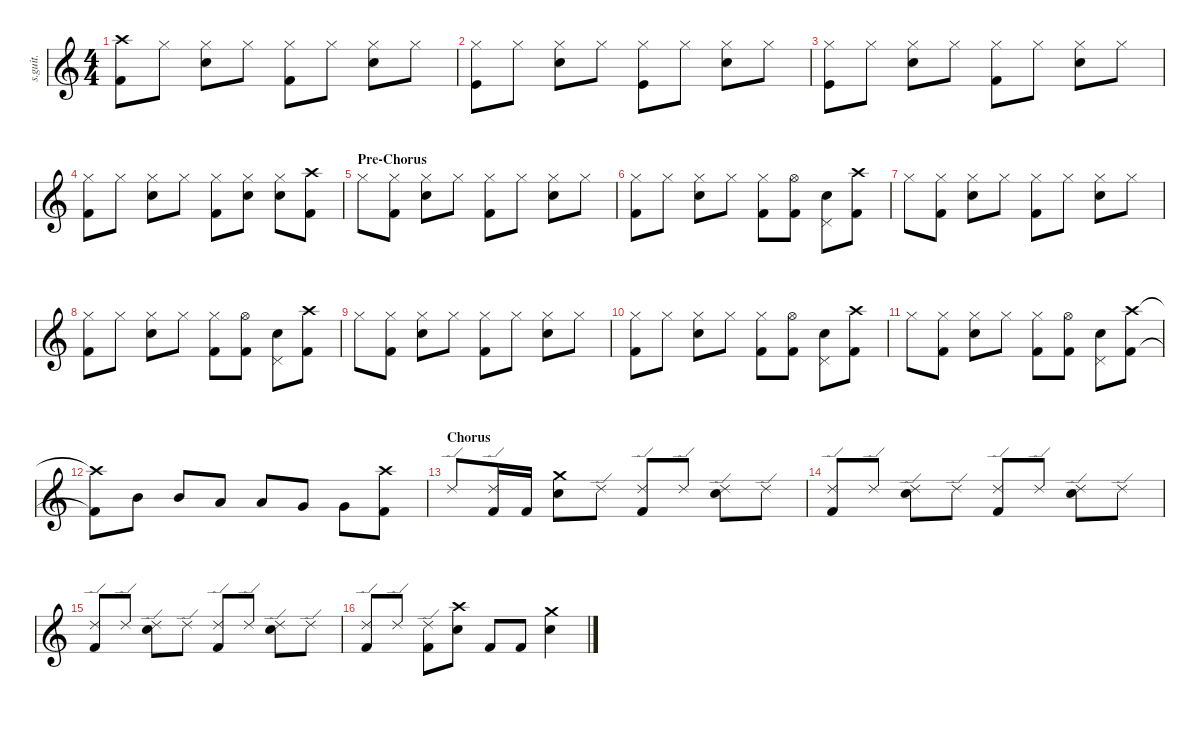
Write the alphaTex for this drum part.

\defaultSystemsLayout 4
\hideDynamics
\bracketExtendMode nobrackets
\track ("Nick Menza" "s.guit.") {instrument percussion}
\staff {score}
\articulation defaults
\ts (4 4)
\tempo (140 hide)
\clef g2
\ks c
("Crash high (hit)" "Kick (hit) 2").8{lyrics (0 "") lyrics (1 "") lyrics (2 "") lyrics (3 "") lyrics (4 "") dy f} "Hi-Hat (closed)".8{lyrics (0 "") lyrics (1 "") lyrics (2 "") lyrics (3 "") lyrics (4 "")} ("Hi-Hat (closed)" "Snare (hit) 2").8{lyrics (0 "") lyrics (1 "") lyrics (2 "") lyrics (3 "") lyrics (4 "")} "Hi-Hat (closed)".8{lyrics (0 "") lyrics (1 "") lyrics (2 "") lyrics (3 "") lyrics (4 "")} ("Hi-Hat (closed)" "Kick (hit) 2").8{lyrics (0 "") lyrics (1 "") lyrics (2 "") lyrics (3 "") lyrics (4 "")} "Hi-Hat (closed)".8{lyrics (0 "") lyrics (1 "") lyrics (2 "") lyrics (3 "") lyrics (4 "")} ("Hi-Hat (closed)" "Snare (hit) 2").8{lyrics (0 "") lyrics (1 "") lyrics (2 "") lyrics (3 "") lyrics (4 "")} "Hi-Hat (closed)".8{lyrics (0 "") lyrics (1 "") lyrics (2 "") lyrics (3 "") lyrics (4 "")} |
("Hi-Hat (closed)" "Kick (hit)").8{lyrics (0 "") lyrics (1 "") lyrics (2 "") lyrics (3 "") lyrics (4 "")} "Hi-Hat (closed)".8{lyrics (0 "") lyrics (1 "") lyrics (2 "") lyrics (3 "") lyrics (4 "")} ("Hi-Hat (closed)" "Snare (hit) 2").8{lyrics (0 "") lyrics (1 "") lyrics (2 "") lyrics (3 "") lyrics (4 "")} "Hi-Hat (closed)".8{lyrics (0 "") lyrics (1 "") lyrics (2 "") lyrics (3 "") lyrics (4 "")} ("Hi-Hat (closed)" "Kick (hit)").8{lyrics (0 "") lyrics (1 "") lyrics (2 "") lyrics (3 "") lyrics (4 "")} "Hi-Hat (closed)".8{lyrics (0 "") lyrics (1 "") lyrics (2 "") lyrics (3 "") lyrics (4 "")} ("Hi-Hat (closed)" "Snare (hit) 2").8{lyrics (0 "") lyrics (1 "") lyrics (2 "") lyrics (3 "") lyrics (4 "")} "Hi-Hat (closed)".8{lyrics (0 "") lyrics (1 "") lyrics (2 "") lyrics (3 "") lyrics (4 "")} |
("Hi-Hat (closed)" "Kick (hit)").8{lyrics (0 "") lyrics (1 "") lyrics (2 "") lyrics (3 "") lyrics (4 "")} "Hi-Hat (closed)".8{lyrics (0 "") lyrics (1 "") lyrics (2 "") lyrics (3 "") lyrics (4 "")} ("Hi-Hat (closed)" "Snare (hit) 2").8{lyrics (0 "") lyrics (1 "") lyrics (2 "") lyrics (3 "") lyrics (4 "")} "Hi-Hat (closed)".8{lyrics (0 "") lyrics (1 "") lyrics (2 "") lyrics (3 "") lyrics (4 "")} ("Hi-Hat (closed)" "Kick (hit) 2").8{lyrics (0 "") lyrics (1 "") lyrics (2 "") lyrics (3 "") lyrics (4 "")} "Hi-Hat (closed)".8{lyrics (0 "") lyrics (1 "") lyrics (2 "") lyrics (3 "") lyrics (4 "")} ("Hi-Hat (closed)" "Snare (hit) 2").8{lyrics (0 "") lyrics (1 "") lyrics (2 "") lyrics (3 "") lyrics (4 "")} "Hi-Hat (closed)".8{lyrics (0 "") lyrics (1 "") lyrics (2 "") lyrics (3 "") lyrics (4 "")} |
("Hi-Hat (closed)" "Kick (hit) 2").8{lyrics (0 "") lyrics (1 "") lyrics (2 "") lyrics (3 "") lyrics (4 "")} "Hi-Hat (closed)".8{lyrics (0 "") lyrics (1 "") lyrics (2 "") lyrics (3 "") lyrics (4 "")} ("Hi-Hat (closed)" "Snare (hit) 2").8{lyrics (0 "") lyrics (1 "") lyrics (2 "") lyrics (3 "") lyrics (4 "")} "Hi-Hat (closed)".8{lyrics (0 "") lyrics (1 "") lyrics (2 "") lyrics (3 "") lyrics (4 "")} ("Hi-Hat (closed)" "Kick (hit) 2").8{lyrics (0 "") lyrics (1 "") lyrics (2 "") lyrics (3 "") lyrics (4 "")} ("Hi-Hat (closed)" "Snare (hit) 2").8{lyrics (0 "") lyrics (1 "") lyrics (2 "") lyrics (3 "") lyrics (4 "")} ("Hi-Hat (closed)" "Snare (hit) 2").8{lyrics (0 "") lyrics (1 "") lyrics (2 "") lyrics (3 "") lyrics (4 "")} ("Crash high (hit)" "Kick (hit) 2").8{lyrics (0 "") lyrics (1 "") lyrics (2 "") lyrics (3 "") lyrics (4 "")} |
\section ("" "Pre-Chorus")
"Hi-Hat (closed)".8{lyrics (0 "") lyrics (1 "") lyrics (2 "") lyrics (3 "") lyrics (4 "")} ("Hi-Hat (closed)" "Kick (hit) 2").8{lyrics (0 "") lyrics (1 "") lyrics (2 "") lyrics (3 "") lyrics (4 "")} ("Hi-Hat (closed)" "Snare (hit) 2").8{lyrics (0 "") lyrics (1 "") lyrics (2 "") lyrics (3 "") lyrics (4 "")} "Hi-Hat (closed)".8{lyrics (0 "") lyrics (1 "") lyrics (2 "") lyrics (3 "") lyrics (4 "")} ("Hi-Hat (closed)" "Kick (hit) 2").8{lyrics (0 "") lyrics (1 "") lyrics (2 "") lyrics (3 "") lyrics (4 "")} "Hi-Hat (closed)".8{lyrics (0 "") lyrics (1 "") lyrics (2 "") lyrics (3 "") lyrics (4 "")} ("Hi-Hat (closed)" "Snare (hit) 2").8{lyrics (0 "") lyrics (1 "") lyrics (2 "") lyrics (3 "") lyrics (4 "")} "Hi-Hat (closed)".8{lyrics (0 "") lyrics (1 "") lyrics (2 "") lyrics (3 "") lyrics (4 "")} |
("Hi-Hat (closed)" "Kick (hit) 2").8{lyrics (0 "") lyrics (1 "") lyrics (2 "") lyrics (3 "") lyrics (4 "")} "Hi-Hat (closed)".8{lyrics (0 "") lyrics (1 "") lyrics (2 "") lyrics (3 "") lyrics (4 "")} ("Hi-Hat (closed)" "Snare (hit) 2").8{lyrics (0 "") lyrics (1 "") lyrics (2 "") lyrics (3 "") lyrics (4 "")} "Hi-Hat (closed)".8{lyrics (0 "") lyrics (1 "") lyrics (2 "") lyrics (3 "") lyrics (4 "")} ("Hi-Hat (closed)" "Kick (hit) 2").8{lyrics (0 "") lyrics (1 "") lyrics (2 "") lyrics (3 "") lyrics (4 "")} ("Hi-Hat (open)" "Kick (hit) 2").8{lyrics (0 "") lyrics (1 "") lyrics (2 "") lyrics (3 "") lyrics (4 "")} ("Pedal Hi-Hat (hit)" "Snare (hit) 2").8{lyrics (0 "") lyrics (1 "") lyrics (2 "") lyrics (3 "") lyrics (4 "")} ("Crash high (hit)" "Kick (hit) 2").8{lyrics (0 "") lyrics (1 "") lyrics (2 "") lyrics (3 "") lyrics (4 "")} |
"Hi-Hat (closed)".8{lyrics (0 "") lyrics (1 "") lyrics (2 "") lyrics (3 "") lyrics (4 "")} ("Hi-Hat (closed)" "Kick (hit) 2").8{lyrics (0 "") lyrics (1 "") lyrics (2 "") lyrics (3 "") lyrics (4 "")} ("Hi-Hat (closed)" "Snare (hit) 2").8{lyrics (0 "") lyrics (1 "") lyrics (2 "") lyrics (3 "") lyrics (4 "")} "Hi-Hat (closed)".8{lyrics (0 "") lyrics (1 "") lyrics (2 "") lyrics (3 "") lyrics (4 "")} ("Hi-Hat (closed)" "Kick (hit) 2").8{lyrics (0 "") lyrics (1 "") lyrics (2 "") lyrics (3 "") lyrics (4 "")} "Hi-Hat (closed)".8{lyrics (0 "") lyrics (1 "") lyrics (2 "") lyrics (3 "") lyrics (4 "")} ("Hi-Hat (closed)" "Snare (hit) 2").8{lyrics (0 "") lyrics (1 "") lyrics (2 "") lyrics (3 "") lyrics (4 "")} "Hi-Hat (closed)".8{lyrics (0 "") lyrics (1 "") lyrics (2 "") lyrics (3 "") lyrics (4 "")} |
("Hi-Hat (closed)" "Kick (hit) 2").8{lyrics (0 "") lyrics (1 "") lyrics (2 "") lyrics (3 "") lyrics (4 "")} "Hi-Hat (closed)".8{lyrics (0 "") lyrics (1 "") lyrics (2 "") lyrics (3 "") lyrics (4 "")} ("Hi-Hat (closed)" "Snare (hit) 2").8{lyrics (0 "") lyrics (1 "") lyrics (2 "") lyrics (3 "") lyrics (4 "")} "Hi-Hat (closed)".8{lyrics (0 "") lyrics (1 "") lyrics (2 "") lyrics (3 "") lyrics (4 "")} ("Hi-Hat (closed)" "Kick (hit) 2").8{lyrics (0 "") lyrics (1 "") lyrics (2 "") lyrics (3 "") lyrics (4 "")} ("Hi-Hat (open)" "Kick (hit) 2").8{lyrics (0 "") lyrics (1 "") lyrics (2 "") lyrics (3 "") lyrics (4 "")} ("Pedal Hi-Hat (hit)" "Snare (hit) 2").8{lyrics (0 "") lyrics (1 "") lyrics (2 "") lyrics (3 "") lyrics (4 "")} ("Crash high (hit)" "Kick (hit) 2").8{lyrics (0 "") lyrics (1 "") lyrics (2 "") lyrics (3 "") lyrics (4 "")} |
"Hi-Hat (closed)".8{lyrics (0 "") lyrics (1 "") lyrics (2 "") lyrics (3 "") lyrics (4 "")} ("Hi-Hat (closed)" "Kick (hit) 2").8{lyrics (0 "") lyrics (1 "") lyrics (2 "") lyrics (3 "") lyrics (4 "")} ("Hi-Hat (closed)" "Snare (hit) 2").8{lyrics (0 "") lyrics (1 "") lyrics (2 "") lyrics (3 "") lyrics (4 "")} "Hi-Hat (closed)".8{lyrics (0 "") lyrics (1 "") lyrics (2 "") lyrics (3 "") lyrics (4 "")} ("Hi-Hat (closed)" "Kick (hit) 2").8{lyrics (0 "") lyrics (1 "") lyrics (2 "") lyrics (3 "") lyrics (4 "")} "Hi-Hat (closed)".8{lyrics (0 "") lyrics (1 "") lyrics (2 "") lyrics (3 "") lyrics (4 "")} ("Hi-Hat (closed)" "Snare (hit) 2").8{lyrics (0 "") lyrics (1 "") lyrics (2 "") lyrics (3 "") lyrics (4 "")} "Hi-Hat (closed)".8{lyrics (0 "") lyrics (1 "") lyrics (2 "") lyrics (3 "") lyrics (4 "")} |
("Hi-Hat (closed)" "Kick (hit) 2").8{lyrics (0 "") lyrics (1 "") lyrics (2 "") lyrics (3 "") lyrics (4 "")} "Hi-Hat (closed)".8{lyrics (0 "") lyrics (1 "") lyrics (2 "") lyrics (3 "") lyrics (4 "")} ("Hi-Hat (closed)" "Snare (hit) 2").8{lyrics (0 "") lyrics (1 "") lyrics (2 "") lyrics (3 "") lyrics (4 "")} "Hi-Hat (closed)".8{lyrics (0 "") lyrics (1 "") lyrics (2 "") lyrics (3 "") lyrics (4 "")} ("Hi-Hat (closed)" "Kick (hit) 2").8{lyrics (0 "") lyrics (1 "") lyrics (2 "") lyrics (3 "") lyrics (4 "")} ("Hi-Hat (open)" "Kick (hit) 2").8{lyrics (0 "") lyrics (1 "") lyrics (2 "") lyrics (3 "") lyrics (4 "")} ("Pedal Hi-Hat (hit)" "Snare (hit) 2").8{lyrics (0 "") lyrics (1 "") lyrics (2 "") lyrics (3 "") lyrics (4 "")} ("Crash high (hit)" "Kick (hit) 2").8{lyrics (0 "") lyrics (1 "") lyrics (2 "") lyrics (3 "") lyrics (4 "")} |
"Hi-Hat (closed)".8{lyrics (0 "") lyrics (1 "") lyrics (2 "") lyrics (3 "") lyrics (4 "")} ("Hi-Hat (closed)" "Kick (hit) 2").8{lyrics (0 "") lyrics (1 "") lyrics (2 "") lyrics (3 "") lyrics (4 "")} ("Hi-Hat (closed)" "Snare (hit) 2").8{lyrics (0 "") lyrics (1 "") lyrics (2 "") lyrics (3 "") lyrics (4 "")} "Hi-Hat (closed)".8{lyrics (0 "") lyrics (1 "") lyrics (2 "") lyrics (3 "") lyrics (4 "")} ("Hi-Hat (closed)" "Kick (hit) 2").8{lyrics (0 "") lyrics (1 "") lyrics (2 "") lyrics (3 "") lyrics (4 "")} ("Hi-Hat (open)" "Kick (hit) 2").8{lyrics (0 "") lyrics (1 "") lyrics (2 "") lyrics (3 "") lyrics (4 "")} ("Pedal Hi-Hat (hit)" "Snare (hit) 2").8{lyrics (0 "") lyrics (1 "") lyrics (2 "") lyrics (3 "") lyrics (4 "")} ("Crash high (hit)" "Kick (hit) 2").8{lyrics (0 "") lyrics (1 "") lyrics (2 "") lyrics (3 "") lyrics (4 "")} |
("Crash high (hit)"{t} "Kick (hit) 2"{t}).8{lyrics (0 "") lyrics (1 "") lyrics (2 "") lyrics (3 "") lyrics (4 "")} "Mid Tom (hit)".8{lyrics (0 "") lyrics (1 "") lyrics (2 "") lyrics (3 "") lyrics (4 "")} "Mid Tom (hit)".8{lyrics (0 "") lyrics (1 "") lyrics (2 "") lyrics (3 "") lyrics (4 "")} "Low Tom (hit)".8{lyrics (0 "") lyrics (1 "") lyrics (2 "") lyrics (3 "") lyrics (4 "")} "Low Tom (hit)".8{lyrics (0 "") lyrics (1 "") lyrics (2 "") lyrics (3 "") lyrics (4 "")} "Very Low Tom (hit)".8{lyrics (0 "") lyrics (1 "") lyrics (2 "") lyrics (3 "") lyrics (4 "")} "Very Low Tom (hit)".8{lyrics (0 "") lyrics (1 "") lyrics (2 "") lyrics (3 "") lyrics (4 "")} ("Crash high (hit)" "Kick (hit) 2").8{lyrics (0 "") lyrics (1 "") lyrics (2 "") lyrics (3 "") lyrics (4 "")} |
\section ("" "Chorus")
"Ride (edge) 2".8{lyrics (0 "") lyrics (1 "") lyrics (2 "") lyrics (3 "") lyrics (4 "")} ("Ride (edge) 2" "Kick (hit) 2").16{lyrics (0 "") lyrics (1 "") lyrics (2 "") lyrics (3 "") lyrics (4 "")} "Kick (hit) 2".16{lyrics (0 "") lyrics (1 "") lyrics (2 "") lyrics (3 "") lyrics (4 "") dy fff} ("Crash medium (hit)" "Snare (hit) 2").8{lyrics (0 "") lyrics (1 "") lyrics (2 "") lyrics (3 "") lyrics (4 "") dy f} "Ride (edge) 2".8{lyrics (0 "") lyrics (1 "") lyrics (2 "") lyrics (3 "") lyrics (4 "")} ("Ride (edge) 2" "Kick (hit) 2").8{lyrics (0 "") lyrics (1 "") lyrics (2 "") lyrics (3 "") lyrics (4 "")} "Ride (edge) 2".8{lyrics (0 "") lyrics (1 "") lyrics (2 "") lyrics (3 "") lyrics (4 "")} ("Ride (edge) 2" "Snare (hit) 2").8{lyrics (0 "") lyrics (1 "") lyrics (2 "") lyrics (3 "") lyrics (4 "")} "Ride (edge) 2".8{lyrics (0 "") lyrics (1 "") lyrics (2 "") lyrics (3 "") lyrics (4 "")} |
("Ride (edge) 2" "Kick (hit) 2").8{lyrics (0 "") lyrics (1 "") lyrics (2 "") lyrics (3 "") lyrics (4 "")} "Ride (edge) 2".8{lyrics (0 "") lyrics (1 "") lyrics (2 "") lyrics (3 "") lyrics (4 "")} ("Ride (edge) 2" "Snare (hit) 2").8{lyrics (0 "") lyrics (1 "") lyrics (2 "") lyrics (3 "") lyrics (4 "")} "Ride (edge) 2".8{lyrics (0 "") lyrics (1 "") lyrics (2 "") lyrics (3 "") lyrics (4 "")} ("Ride (edge) 2" "Kick (hit) 2").8{lyrics (0 "") lyrics (1 "") lyrics (2 "") lyrics (3 "") lyrics (4 "")} "Ride (edge) 2".8{lyrics (0 "") lyrics (1 "") lyrics (2 "") lyrics (3 "") lyrics (4 "")} ("Ride (edge) 2" "Snare (hit) 2").8{lyrics (0 "") lyrics (1 "") lyrics (2 "") lyrics (3 "") lyrics (4 "")} "Ride (edge) 2".8{lyrics (0 "") lyrics (1 "") lyrics (2 "") lyrics (3 "") lyrics (4 "")} |
("Ride (edge) 2" "Kick (hit) 2").8{lyrics (0 "") lyrics (1 "") lyrics (2 "") lyrics (3 "") lyrics (4 "")} "Ride (edge) 2".8{lyrics (0 "") lyrics (1 "") lyrics (2 "") lyrics (3 "") lyrics (4 "")} ("Ride (edge) 2" "Snare (hit) 2").8{lyrics (0 "") lyrics (1 "") lyrics (2 "") lyrics (3 "") lyrics (4 "")} "Ride (edge) 2".8{lyrics (0 "") lyrics (1 "") lyrics (2 "") lyrics (3 "") lyrics (4 "")} ("Ride (edge) 2" "Kick (hit) 2").8{lyrics (0 "") lyrics (1 "") lyrics (2 "") lyrics (3 "") lyrics (4 "")} "Ride (edge) 2".8{lyrics (0 "") lyrics (1 "") lyrics (2 "") lyrics (3 "") lyrics (4 "")} ("Ride (edge) 2" "Snare (hit) 2").8{lyrics (0 "") lyrics (1 "") lyrics (2 "") lyrics (3 "") lyrics (4 "")} "Ride (edge) 2".8{lyrics (0 "") lyrics (1 "") lyrics (2 "") lyrics (3 "") lyrics (4 "")} |
("Ride (edge) 2" "Kick (hit) 2").8{lyrics (0 "") lyrics (1 "") lyrics (2 "") lyrics (3 "") lyrics (4 "")} "Ride (edge) 2".8{lyrics (0 "") lyrics (1 "") lyrics (2 "") lyrics (3 "") lyrics (4 "")} ("Ride (edge) 2" "Kick (hit) 2").8{lyrics (0 "") lyrics (1 "") lyrics (2 "") lyrics (3 "") lyrics (4 "")} ("Crash high (hit)" "Snare (hit) 2").8{lyrics (0 "") lyrics (1 "") lyrics (2 "") lyrics (3 "") lyrics (4 "")} "Kick (hit) 2".8{lyrics (0 "") lyrics (1 "") lyrics (2 "") lyrics (3 "") lyrics (4 "") dy fff} "Kick (hit) 2".8{lyrics (0 "") lyrics (1 "") lyrics (2 "") lyrics (3 "") lyrics (4 "")} ("Crash medium (hit)" "Snare (hit) 2").4{lyrics (0 "") lyrics (1 "") lyrics (2 "") lyrics (3 "") lyrics (4 "") dy f}
